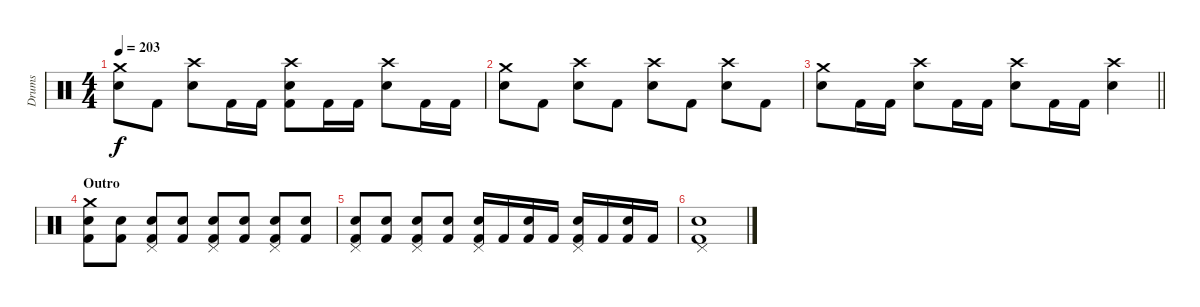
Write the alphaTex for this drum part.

\track ("Drums" "Drums") {instrument percussion}
\staff {score}
\articulation defaults
\ts (4 4)
\tempo 203
\clef neutral
\ks c
("Crash medium (hit)" "Electric Snare (hit)").8{dy f} "Kick (hit) 2".8 ("Crash high (hit)" "Electric Snare (hit)").8 "Kick (hit) 2".16 "Kick (hit) 2".16 ("Crash high (hit)" "Electric Snare (hit)" "Kick (hit) 2").8 "Kick (hit) 2".16 "Kick (hit) 2".16 ("Crash high (hit)" "Electric Snare (hit)").8 "Kick (hit) 2".16 "Kick (hit) 2".16 |
("Crash medium (hit)" "Electric Snare (hit)").8 "Kick (hit) 2".8 ("Crash high (hit)" "Electric Snare (hit)").8 "Kick (hit) 2".8 ("Crash high (hit)" "Electric Snare (hit)").8 "Kick (hit) 2".8 ("Crash high (hit)" "Electric Snare (hit)").8 "Kick (hit) 2".8 |
\barLineRight lightlight
("Crash medium (hit)" "Electric Snare (hit)").8 "Kick (hit) 2".16 "Kick (hit) 2".16 ("Crash high (hit)" "Electric Snare (hit)").8 "Kick (hit) 2".16 "Kick (hit) 2".16 ("Crash high (hit)" "Electric Snare (hit)").8 "Kick (hit) 2".16 "Kick (hit) 2".16 ("Crash high (hit)" "Electric Snare (hit)").4 |
\section ("" "Outro")
("Crash medium (hit)" "Electric Snare (hit)" "Kick (hit) 2").8 ("Electric Snare (hit)" "Kick (hit) 2").8 ("Pedal Hi-Hat (hit)" "Electric Snare (hit)" "Kick (hit) 2").8 ("Electric Snare (hit)" "Kick (hit) 2").8 ("Pedal Hi-Hat (hit)" "Electric Snare (hit)" "Kick (hit) 2").8 ("Electric Snare (hit)" "Kick (hit) 2").8 ("Pedal Hi-Hat (hit)" "Electric Snare (hit)" "Kick (hit) 2").8 ("Electric Snare (hit)" "Kick (hit) 2").8 |
("Pedal Hi-Hat (hit)" "Electric Snare (hit)" "Kick (hit) 2").8 ("Electric Snare (hit)" "Kick (hit) 2").8 ("Pedal Hi-Hat (hit)" "Electric Snare (hit)" "Kick (hit) 2").8 ("Electric Snare (hit)" "Kick (hit) 2").8 ("Pedal Hi-Hat (hit)" "Electric Snare (hit)" "Kick (hit) 2").16 "Kick (hit) 2".16 ("Electric Snare (hit)" "Kick (hit) 2").16 "Kick (hit) 2".16 ("Pedal Hi-Hat (hit)" "Electric Snare (hit)" "Kick (hit) 2").16 "Kick (hit) 2".16 ("Electric Snare (hit)" "Kick (hit) 2").16 "Kick (hit) 2".16 |
("Pedal Hi-Hat (hit)" "Electric Snare (hit)" "Kick (hit) 2").1
